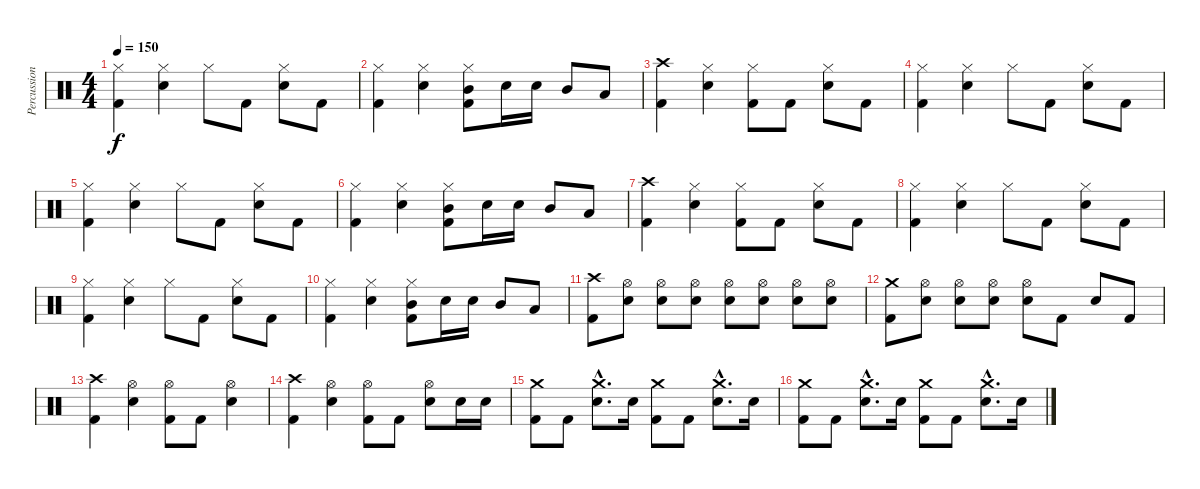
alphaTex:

\track ("Percussion" "Percussion") {instrument percussion}
\staff {score}
\articulation defaults
\ts (4 4)
\tempo 150
\clef neutral
\ks c
("Hi-Hat (closed)" "Kick (hit) 2").4{dy f} ("Hi-Hat (closed)" "Snare (hit) 2").4 "Hi-Hat (closed)".8 "Kick (hit) 2".8 ("Hi-Hat (closed)" "Snare (hit) 2").8 "Kick (hit) 2".8 |
("Hi-Hat (closed)" "Kick (hit) 2").4 ("Hi-Hat (closed)" "Snare (hit) 2").4 ("Hi-Hat (closed)" "Mid Tom (hit)" "Kick (hit) 2").8 "Snare (hit) 2".16 "Snare (hit) 2".16 "Mid Tom (hit)".8 "Low Floor Tom (hit)".8 |
("Crash high (hit)" "Kick (hit) 2").4 ("Hi-Hat (closed)" "Snare (hit) 2").4 ("Hi-Hat (closed)" "Kick (hit) 2").8 "Kick (hit) 2".8 ("Hi-Hat (closed)" "Snare (hit) 2").8 "Kick (hit) 2".8 |
("Hi-Hat (closed)" "Kick (hit) 2").4 ("Hi-Hat (closed)" "Snare (hit) 2").4 "Hi-Hat (closed)".8 "Kick (hit) 2".8 ("Hi-Hat (closed)" "Snare (hit) 2").8 "Kick (hit) 2".8 |
("Hi-Hat (closed)" "Kick (hit) 2").4 ("Hi-Hat (closed)" "Snare (hit) 2").4 "Hi-Hat (closed)".8 "Kick (hit) 2".8 ("Hi-Hat (closed)" "Snare (hit) 2").8 "Kick (hit) 2".8 |
("Hi-Hat (closed)" "Kick (hit) 2").4 ("Hi-Hat (closed)" "Snare (hit) 2").4 ("Hi-Hat (closed)" "Mid Tom (hit)" "Kick (hit) 2").8 "Snare (hit) 2".16 "Snare (hit) 2".16 "Mid Tom (hit)".8 "Low Floor Tom (hit)".8 |
("Crash high (hit)" "Kick (hit) 2").4 ("Hi-Hat (closed)" "Snare (hit) 2").4 ("Hi-Hat (closed)" "Kick (hit) 2").8 "Kick (hit) 2".8 ("Hi-Hat (closed)" "Snare (hit) 2").8 "Kick (hit) 2".8 |
("Hi-Hat (closed)" "Kick (hit) 2").4 ("Hi-Hat (closed)" "Snare (hit) 2").4 "Hi-Hat (closed)".8 "Kick (hit) 2".8 ("Hi-Hat (closed)" "Snare (hit) 2").8 "Kick (hit) 2".8 |
("Hi-Hat (closed)" "Kick (hit) 2").4 ("Hi-Hat (closed)" "Snare (hit) 2").4 "Hi-Hat (closed)".8 "Kick (hit) 2".8 ("Hi-Hat (closed)" "Snare (hit) 2").8 "Kick (hit) 2".8 |
("Hi-Hat (closed)" "Kick (hit) 2").4 ("Hi-Hat (closed)" "Snare (hit) 2").4 ("Hi-Hat (closed)" "Mid Tom (hit)" "Kick (hit) 2").8 "Snare (hit) 2".16 "Snare (hit) 2".16 "Mid Tom (hit)".8 "Low Floor Tom (hit)".8 |
("Crash high (hit)" "Kick (hit) 2").8 ("Hi-Hat (open)" "Snare (hit) 2").8{volume 8} ("Hi-Hat (open)" "Snare (hit) 2").8{volume 13} ("Hi-Hat (open)" "Snare (hit) 2").8 ("Hi-Hat (open)" "Snare (hit) 2").8 ("Hi-Hat (open)" "Snare (hit) 2").8 ("Hi-Hat (open)" "Snare (hit) 2").8 ("Hi-Hat (open)" "Snare (hit) 2").8 |
("Crash medium (hit)" "Kick (hit) 2").8 ("Hi-Hat (open)" "Snare (hit) 2").8{volume 8} ("Hi-Hat (open)" "Snare (hit) 2").8{volume 13} ("Hi-Hat (open)" "Snare (hit) 2").8 ("Hi-Hat (open)" "Snare (hit) 2").8 "Kick (hit) 2".8 "Snare (hit) 2".8 "Kick (hit) 2".8 |
("Crash high (hit)" "Kick (hit) 2").4 ("Hi-Hat (open)" "Snare (hit) 2").4 ("Hi-Hat (open)" "Kick (hit) 2").8 "Kick (hit) 2".8 ("Hi-Hat (open)" "Snare (hit) 2").4 |
("Crash high (hit)" "Kick (hit) 2").4 ("Hi-Hat (open)" "Snare (hit) 2").4 ("Hi-Hat (open)" "Kick (hit) 2").8 "Kick (hit) 2".8 ("Hi-Hat (open)" "Snare (hit) 2").8 "Snare (hit) 2".16 "Snare (hit) 2".16 |
("Crash medium (hit)" "Kick (hit) 2").8 "Kick (hit) 2".8 ("Crash medium (hit)"{hac} "Snare (hit) 2"{hac}).8{d} "Snare (hit) 2".16 ("Crash medium (hit)" "Kick (hit) 2").8 "Kick (hit) 2".8 ("Crash medium (hit)"{hac} "Snare (hit) 2"{hac}).8{d} "Snare (hit) 2".16 |
("Crash medium (hit)" "Kick (hit) 2").8 "Kick (hit) 2".8 ("Crash medium (hit)"{hac} "Snare (hit) 2"{hac}).8{d} "Snare (hit) 2".16 ("Crash medium (hit)" "Kick (hit) 2").8 "Kick (hit) 2".8 ("Crash medium (hit)"{hac} "Snare (hit) 2"{hac}).8{d} "Snare (hit) 2".16
